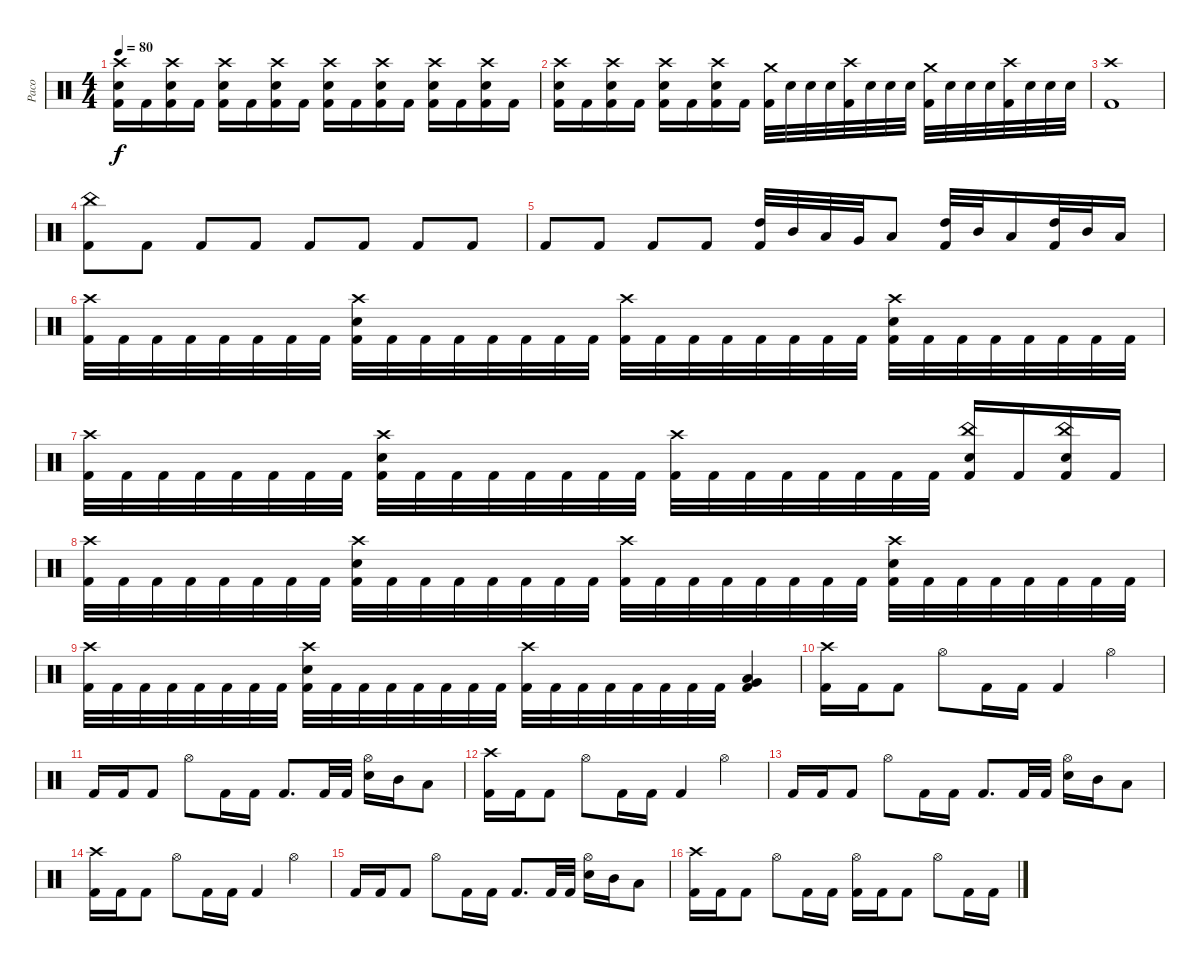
\track ("Paco" "Paco") {instrument percussion}
\staff {score}
\articulation defaults
\ts (4 4)
\tempo 80
\clef neutral
\ks c
("Crash high (hit)" "Electric Snare (hit)" "Kick (hit) 2").16{dy f} "Kick (hit) 2".16 ("Crash high (hit)" "Electric Snare (hit)" "Kick (hit) 2").16 "Kick (hit) 2".16 ("Crash high (hit)" "Electric Snare (hit)" "Kick (hit) 2").16 "Kick (hit) 2".16 ("Crash high (hit)" "Electric Snare (hit)" "Kick (hit) 2").16 "Kick (hit) 2".16 ("Crash high (hit)" "Electric Snare (hit)" "Kick (hit) 2").16 "Kick (hit) 2".16 ("Crash high (hit)" "Electric Snare (hit)" "Kick (hit) 2").16 "Kick (hit) 2".16 ("Crash high (hit)" "Electric Snare (hit)" "Kick (hit) 2").16 "Kick (hit) 2".16 ("Crash high (hit)" "Electric Snare (hit)" "Kick (hit) 2").16 "Kick (hit) 2".16 |
("Crash high (hit)" "Electric Snare (hit)" "Kick (hit) 2").16 "Kick (hit) 2".16 ("Crash high (hit)" "Electric Snare (hit)" "Kick (hit) 2").16 "Kick (hit) 2".16 ("Crash high (hit)" "Electric Snare (hit)" "Kick (hit) 2").16 "Kick (hit) 2".16 ("Crash high (hit)" "Electric Snare (hit)" "Kick (hit) 2").16 "Kick (hit) 2".16 ("Crash medium (hit)" "Kick (hit) 2").32 "Electric Snare (hit)".32 "Electric Snare (hit)".32 "Electric Snare (hit)".32 ("Crash high (hit)" "Kick (hit) 2").32 "Electric Snare (hit)".32 "Electric Snare (hit)".32 "Electric Snare (hit)".32 ("Crash medium (hit)" "Kick (hit) 2").32 "Electric Snare (hit)".32 "Electric Snare (hit)".32 "Electric Snare (hit)".32 ("Crash high (hit)" "Kick (hit) 2").32 "Electric Snare (hit)".32 "Electric Snare (hit)".32 "Electric Snare (hit)".32 |
("Crash high (hit)" "Kick (hit) 2").1 |
("China (hit)" "Kick (hit) 2").8 "Kick (hit) 2".8 "Kick (hit) 2".8 "Kick (hit) 2".8 "Kick (hit) 2".8 "Kick (hit) 2".8 "Kick (hit) 2".8 "Kick (hit) 2".8 |
"Kick (hit) 2".8 "Kick (hit) 2".8 "Kick (hit) 2".8 "Kick (hit) 2".8 ("High Tom (hit)" "Kick (hit) 2").32 "Mid Tom (hit)".32 "Low Tom (hit)".32 "Very Low Tom (hit)".32 "Low Floor Tom (hit)".8 ("High Tom (hit)" "Kick (hit) 2").32 "Mid Tom (hit)".32 "Low Tom (hit)".16 ("High Tom (hit)" "Kick (hit) 2").32 "Mid Tom (hit)".32 "Low Tom (hit)".16 |
("Crash high (hit)" "Kick (hit) 2").32 "Kick (hit) 2".32 "Kick (hit) 2".32 "Kick (hit) 2".32 "Kick (hit) 2".32 "Kick (hit) 2".32 "Kick (hit) 2".32 "Kick (hit) 2".32 ("Crash high (hit)" "Electric Snare (hit)" "Kick (hit) 2").32 "Kick (hit) 2".32 "Kick (hit) 2".32 "Kick (hit) 2".32 "Kick (hit) 2".32 "Kick (hit) 2".32 "Kick (hit) 2".32 "Kick (hit) 2".32 ("Crash high (hit)" "Kick (hit) 2").32 "Kick (hit) 2".32 "Kick (hit) 2".32 "Kick (hit) 2".32 "Kick (hit) 2".32 "Kick (hit) 2".32 "Kick (hit) 2".32 "Kick (hit) 2".32 ("Crash high (hit)" "Electric Snare (hit)" "Kick (hit) 2").32 "Kick (hit) 2".32 "Kick (hit) 2".32 "Kick (hit) 2".32 "Kick (hit) 2".32 "Kick (hit) 2".32 "Kick (hit) 2".32 "Kick (hit) 2".32 |
("Crash high (hit)" "Kick (hit) 2").32 "Kick (hit) 2".32 "Kick (hit) 2".32 "Kick (hit) 2".32 "Kick (hit) 2".32 "Kick (hit) 2".32 "Kick (hit) 2".32 "Kick (hit) 2".32 ("Crash high (hit)" "Electric Snare (hit)" "Kick (hit) 2").32 "Kick (hit) 2".32 "Kick (hit) 2".32 "Kick (hit) 2".32 "Kick (hit) 2".32 "Kick (hit) 2".32 "Kick (hit) 2".32 "Kick (hit) 2".32 ("Crash high (hit)" "Kick (hit) 2").32 "Kick (hit) 2".32 "Kick (hit) 2".32 "Kick (hit) 2".32 "Kick (hit) 2".32 "Kick (hit) 2".32 "Kick (hit) 2".32 "Kick (hit) 2".32 ("China (hit)" "Snare (hit) 2" "Kick (hit) 2").16 "Kick (hit) 2".16 ("China (hit)" "Snare (hit) 2" "Kick (hit) 2").16 "Kick (hit) 2".16 |
("Crash high (hit)" "Kick (hit) 2").32 "Kick (hit) 2".32 "Kick (hit) 2".32 "Kick (hit) 2".32 "Kick (hit) 2".32 "Kick (hit) 2".32 "Kick (hit) 2".32 "Kick (hit) 2".32 ("Crash high (hit)" "Electric Snare (hit)" "Kick (hit) 2").32 "Kick (hit) 2".32 "Kick (hit) 2".32 "Kick (hit) 2".32 "Kick (hit) 2".32 "Kick (hit) 2".32 "Kick (hit) 2".32 "Kick (hit) 2".32 ("Crash high (hit)" "Kick (hit) 2").32 "Kick (hit) 2".32 "Kick (hit) 2".32 "Kick (hit) 2".32 "Kick (hit) 2".32 "Kick (hit) 2".32 "Kick (hit) 2".32 "Kick (hit) 2".32 ("Crash high (hit)" "Electric Snare (hit)" "Kick (hit) 2").32 "Kick (hit) 2".32 "Kick (hit) 2".32 "Kick (hit) 2".32 "Kick (hit) 2".32 "Kick (hit) 2".32 "Kick (hit) 2".32 "Kick (hit) 2".32 |
("Crash high (hit)" "Kick (hit) 2").32 "Kick (hit) 2".32 "Kick (hit) 2".32 "Kick (hit) 2".32 "Kick (hit) 2".32 "Kick (hit) 2".32 "Kick (hit) 2".32 "Kick (hit) 2".32 ("Crash high (hit)" "Electric Snare (hit)" "Kick (hit) 2").32 "Kick (hit) 2".32 "Kick (hit) 2".32 "Kick (hit) 2".32 "Kick (hit) 2".32 "Kick (hit) 2".32 "Kick (hit) 2".32 "Kick (hit) 2".32 ("Crash high (hit)" "Kick (hit) 2").32 "Kick (hit) 2".32 "Kick (hit) 2".32 "Kick (hit) 2".32 "Kick (hit) 2".32 "Kick (hit) 2".32 "Kick (hit) 2".32 "Kick (hit) 2".32 ("Very Low Tom (hit)" "Low Floor Tom (hit)" "Kick (hit) 2").4 |
("Crash high (hit)" "Kick (hit) 2").16 "Kick (hit) 2".16 "Kick (hit) 2".8 "Hi-Hat (open)".8 "Kick (hit) 2".16 "Kick (hit) 2".16 "Kick (hit) 2".4 "Hi-Hat (open)".4 |
"Kick (hit) 2".16 "Kick (hit) 2".16 "Kick (hit) 2".8 "Hi-Hat (open)".8 "Kick (hit) 2".16 "Kick (hit) 2".16 "Kick (hit) 2".8{d} "Kick (hit) 2".32 "Kick (hit) 2".32 ("Hi-Hat (open)" "Electric Snare (hit)").16 "Mid Tom (hit)".16 "Low Tom (hit)".8 |
("Crash high (hit)" "Kick (hit) 2").16 "Kick (hit) 2".16 "Kick (hit) 2".8 "Hi-Hat (open)".8 "Kick (hit) 2".16 "Kick (hit) 2".16 "Kick (hit) 2".4 "Hi-Hat (open)".4 |
"Kick (hit) 2".16 "Kick (hit) 2".16 "Kick (hit) 2".8 "Hi-Hat (open)".8 "Kick (hit) 2".16 "Kick (hit) 2".16 "Kick (hit) 2".8{d} "Kick (hit) 2".32 "Kick (hit) 2".32 ("Hi-Hat (open)" "Electric Snare (hit)").16 "Mid Tom (hit)".16 "Low Tom (hit)".8 |
("Crash high (hit)" "Kick (hit) 2").16 "Kick (hit) 2".16 "Kick (hit) 2".8 "Hi-Hat (open)".8 "Kick (hit) 2".16 "Kick (hit) 2".16 "Kick (hit) 2".4 "Hi-Hat (open)".4 |
"Kick (hit) 2".16 "Kick (hit) 2".16 "Kick (hit) 2".8 "Hi-Hat (open)".8 "Kick (hit) 2".16 "Kick (hit) 2".16 "Kick (hit) 2".8{d} "Kick (hit) 2".32 "Kick (hit) 2".32 ("Hi-Hat (open)" "Electric Snare (hit)").16 "Mid Tom (hit)".16 "Low Tom (hit)".8 |
("Crash high (hit)" "Kick (hit) 2").16 "Kick (hit) 2".16 "Kick (hit) 2".8 "Hi-Hat (open)".8 "Kick (hit) 2".16 "Kick (hit) 2".16 ("Hi-Hat (open)" "Kick (hit) 2").16 "Kick (hit) 2".16 "Kick (hit) 2".8 "Hi-Hat (open)".8 "Kick (hit) 2".16 "Kick (hit) 2".16
